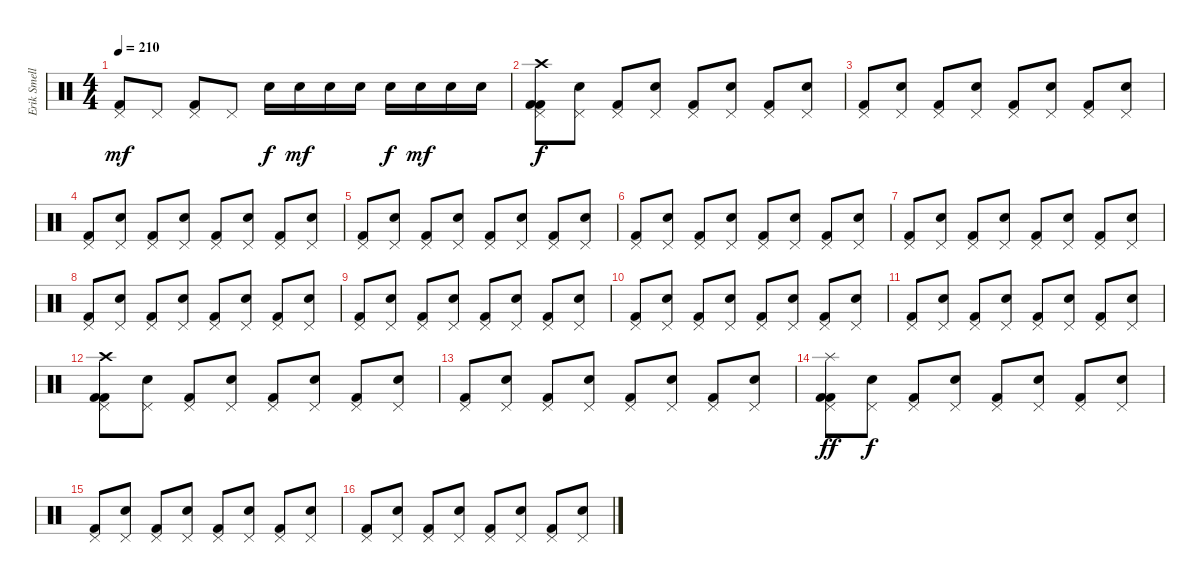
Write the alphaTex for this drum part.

\track ("Erik Smelly" "Erik Smell") {instrument percussion}
\staff {score}
\articulation defaults
\ts (4 4)
\tempo 210
\clef neutral
\ks c
("Pedal Hi-Hat (hit)" "Kick (hit) 2").8{dy mf} "Pedal Hi-Hat (hit)".8 ("Pedal Hi-Hat (hit)" "Kick (hit) 2").8 "Pedal Hi-Hat (hit)".8 "Electric Snare (hit)".16{dy f} "Electric Snare (hit)".16{dy mf} "Electric Snare (hit)".16 "Electric Snare (hit)".16 "Electric Snare (hit)".16{dy f} "Electric Snare (hit)".16{dy mf} "Electric Snare (hit)".16 "Electric Snare (hit)".16 |
("Crash high (hit)" "Kick (hit) 2" "Pedal Hi-Hat (hit)" "Kick (hit) 2").8{dy f} ("Pedal Hi-Hat (hit)" "Electric Snare (hit)").8 ("Pedal Hi-Hat (hit)" "Kick (hit) 2").8 ("Pedal Hi-Hat (hit)" "Electric Snare (hit)").8 ("Pedal Hi-Hat (hit)" "Kick (hit) 2").8 ("Pedal Hi-Hat (hit)" "Electric Snare (hit)").8 ("Pedal Hi-Hat (hit)" "Kick (hit) 2").8 ("Pedal Hi-Hat (hit)" "Electric Snare (hit)").8 |
("Pedal Hi-Hat (hit)" "Kick (hit) 2").8 ("Pedal Hi-Hat (hit)" "Electric Snare (hit)").8 ("Pedal Hi-Hat (hit)" "Kick (hit) 2").8 ("Pedal Hi-Hat (hit)" "Electric Snare (hit)").8 ("Pedal Hi-Hat (hit)" "Kick (hit) 2").8 ("Pedal Hi-Hat (hit)" "Electric Snare (hit)").8 ("Pedal Hi-Hat (hit)" "Kick (hit) 2").8 ("Pedal Hi-Hat (hit)" "Electric Snare (hit)").8 |
("Pedal Hi-Hat (hit)" "Kick (hit) 2").8 ("Pedal Hi-Hat (hit)" "Electric Snare (hit)").8 ("Pedal Hi-Hat (hit)" "Kick (hit) 2").8 ("Pedal Hi-Hat (hit)" "Electric Snare (hit)").8 ("Pedal Hi-Hat (hit)" "Kick (hit) 2").8 ("Pedal Hi-Hat (hit)" "Electric Snare (hit)").8 ("Pedal Hi-Hat (hit)" "Kick (hit) 2").8 ("Pedal Hi-Hat (hit)" "Electric Snare (hit)").8 |
("Pedal Hi-Hat (hit)" "Kick (hit) 2").8 ("Pedal Hi-Hat (hit)" "Electric Snare (hit)").8 ("Pedal Hi-Hat (hit)" "Kick (hit) 2").8 ("Pedal Hi-Hat (hit)" "Electric Snare (hit)").8 ("Pedal Hi-Hat (hit)" "Kick (hit) 2").8 ("Pedal Hi-Hat (hit)" "Electric Snare (hit)").8 ("Pedal Hi-Hat (hit)" "Kick (hit) 2").8 ("Pedal Hi-Hat (hit)" "Electric Snare (hit)").8 |
("Pedal Hi-Hat (hit)" "Kick (hit) 2").8 ("Pedal Hi-Hat (hit)" "Electric Snare (hit)").8 ("Pedal Hi-Hat (hit)" "Kick (hit) 2").8 ("Pedal Hi-Hat (hit)" "Electric Snare (hit)").8 ("Pedal Hi-Hat (hit)" "Kick (hit) 2").8 ("Pedal Hi-Hat (hit)" "Electric Snare (hit)").8 ("Pedal Hi-Hat (hit)" "Kick (hit) 2").8 ("Pedal Hi-Hat (hit)" "Electric Snare (hit)").8 |
("Pedal Hi-Hat (hit)" "Kick (hit) 2").8 ("Pedal Hi-Hat (hit)" "Electric Snare (hit)").8 ("Pedal Hi-Hat (hit)" "Kick (hit) 2").8 ("Pedal Hi-Hat (hit)" "Electric Snare (hit)").8 ("Pedal Hi-Hat (hit)" "Kick (hit) 2").8 ("Pedal Hi-Hat (hit)" "Electric Snare (hit)").8 ("Pedal Hi-Hat (hit)" "Kick (hit) 2").8 ("Pedal Hi-Hat (hit)" "Electric Snare (hit)").8 |
("Pedal Hi-Hat (hit)" "Kick (hit) 2").8 ("Pedal Hi-Hat (hit)" "Electric Snare (hit)").8 ("Pedal Hi-Hat (hit)" "Kick (hit) 2").8 ("Pedal Hi-Hat (hit)" "Electric Snare (hit)").8 ("Pedal Hi-Hat (hit)" "Kick (hit) 2").8 ("Pedal Hi-Hat (hit)" "Electric Snare (hit)").8 ("Pedal Hi-Hat (hit)" "Kick (hit) 2").8 ("Pedal Hi-Hat (hit)" "Electric Snare (hit)").8 |
("Pedal Hi-Hat (hit)" "Kick (hit) 2").8 ("Pedal Hi-Hat (hit)" "Electric Snare (hit)").8 ("Pedal Hi-Hat (hit)" "Kick (hit) 2").8 ("Pedal Hi-Hat (hit)" "Electric Snare (hit)").8 ("Pedal Hi-Hat (hit)" "Kick (hit) 2").8 ("Pedal Hi-Hat (hit)" "Electric Snare (hit)").8 ("Pedal Hi-Hat (hit)" "Kick (hit) 2").8 ("Pedal Hi-Hat (hit)" "Electric Snare (hit)").8 |
("Pedal Hi-Hat (hit)" "Kick (hit) 2").8 ("Pedal Hi-Hat (hit)" "Electric Snare (hit)").8 ("Pedal Hi-Hat (hit)" "Kick (hit) 2").8 ("Pedal Hi-Hat (hit)" "Electric Snare (hit)").8 ("Pedal Hi-Hat (hit)" "Kick (hit) 2").8 ("Pedal Hi-Hat (hit)" "Electric Snare (hit)").8 ("Pedal Hi-Hat (hit)" "Kick (hit) 2").8 ("Pedal Hi-Hat (hit)" "Electric Snare (hit)").8 |
("Pedal Hi-Hat (hit)" "Kick (hit) 2").8 ("Pedal Hi-Hat (hit)" "Electric Snare (hit)").8 ("Pedal Hi-Hat (hit)" "Kick (hit) 2").8 ("Pedal Hi-Hat (hit)" "Electric Snare (hit)").8 ("Pedal Hi-Hat (hit)" "Kick (hit) 2").8 ("Pedal Hi-Hat (hit)" "Electric Snare (hit)").8 ("Pedal Hi-Hat (hit)" "Kick (hit) 2").8 ("Pedal Hi-Hat (hit)" "Electric Snare (hit)").8 |
("Pedal Hi-Hat (hit)" "Kick (hit) 2" "Crash high (hit)" "Kick (hit) 2").8 ("Pedal Hi-Hat (hit)" "Electric Snare (hit)").8 ("Pedal Hi-Hat (hit)" "Kick (hit) 2").8 ("Pedal Hi-Hat (hit)" "Electric Snare (hit)").8 ("Pedal Hi-Hat (hit)" "Kick (hit) 2").8 ("Pedal Hi-Hat (hit)" "Electric Snare (hit)").8 ("Pedal Hi-Hat (hit)" "Kick (hit) 2").8 ("Pedal Hi-Hat (hit)" "Electric Snare (hit)").8 |
("Pedal Hi-Hat (hit)" "Kick (hit) 2").8 ("Pedal Hi-Hat (hit)" "Electric Snare (hit)").8 ("Pedal Hi-Hat (hit)" "Kick (hit) 2").8 ("Pedal Hi-Hat (hit)" "Electric Snare (hit)").8 ("Pedal Hi-Hat (hit)" "Kick (hit) 2").8 ("Pedal Hi-Hat (hit)" "Electric Snare (hit)").8 ("Pedal Hi-Hat (hit)" "Kick (hit) 2").8 ("Pedal Hi-Hat (hit)" "Electric Snare (hit)").8 |
("Kick (hit) 2" "Splash (hit)" "Pedal Hi-Hat (hit)" "Kick (hit) 2").8{dy ff} ("Pedal Hi-Hat (hit)" "Electric Snare (hit)").8{dy f} ("Pedal Hi-Hat (hit)" "Kick (hit) 2").8 ("Pedal Hi-Hat (hit)" "Electric Snare (hit)").8 ("Pedal Hi-Hat (hit)" "Kick (hit) 2").8 ("Pedal Hi-Hat (hit)" "Electric Snare (hit)").8 ("Pedal Hi-Hat (hit)" "Kick (hit) 2").8 ("Pedal Hi-Hat (hit)" "Electric Snare (hit)").8 |
("Pedal Hi-Hat (hit)" "Kick (hit) 2").8 ("Pedal Hi-Hat (hit)" "Electric Snare (hit)").8 ("Pedal Hi-Hat (hit)" "Kick (hit) 2").8 ("Pedal Hi-Hat (hit)" "Electric Snare (hit)").8 ("Pedal Hi-Hat (hit)" "Kick (hit) 2").8 ("Pedal Hi-Hat (hit)" "Electric Snare (hit)").8 ("Pedal Hi-Hat (hit)" "Kick (hit) 2").8 ("Pedal Hi-Hat (hit)" "Electric Snare (hit)").8 |
("Pedal Hi-Hat (hit)" "Kick (hit) 2").8 ("Pedal Hi-Hat (hit)" "Electric Snare (hit)").8 ("Pedal Hi-Hat (hit)" "Kick (hit) 2").8 ("Pedal Hi-Hat (hit)" "Electric Snare (hit)").8 ("Pedal Hi-Hat (hit)" "Kick (hit) 2").8 ("Pedal Hi-Hat (hit)" "Electric Snare (hit)").8 ("Pedal Hi-Hat (hit)" "Kick (hit) 2").8 ("Pedal Hi-Hat (hit)" "Electric Snare (hit)").8
